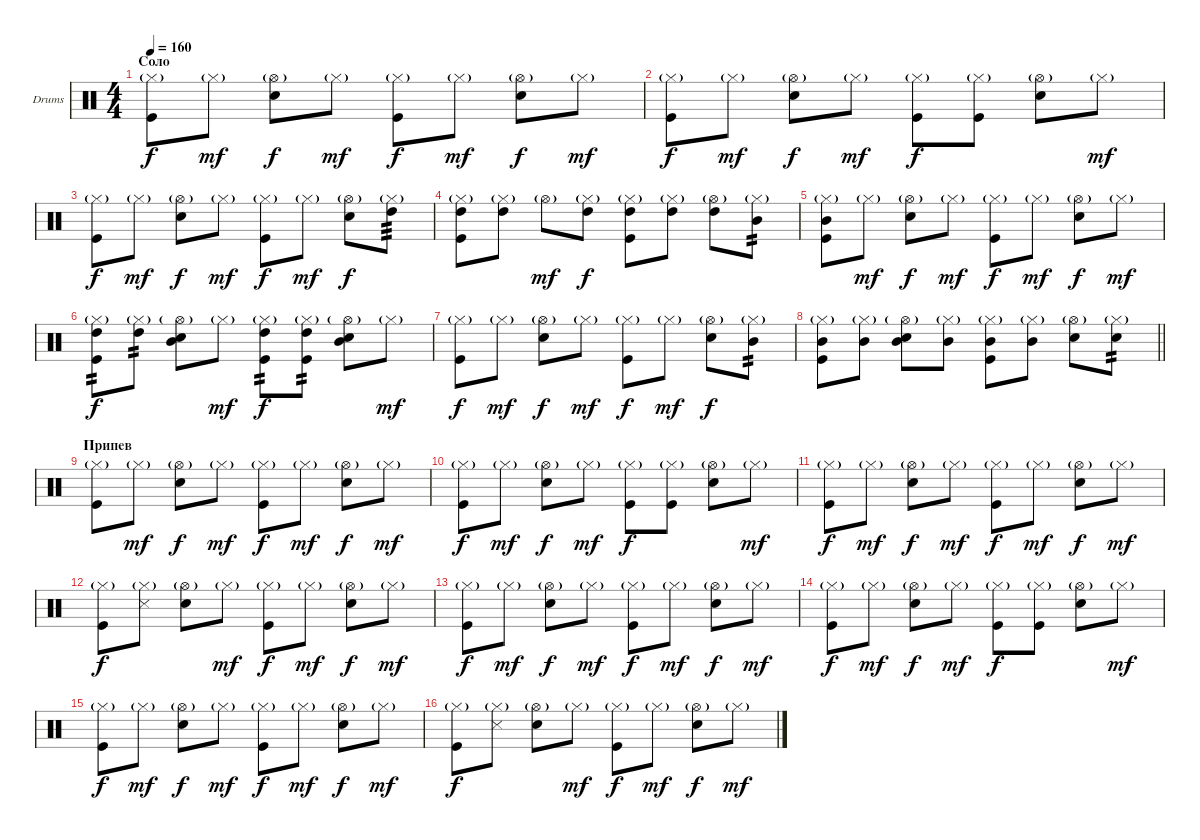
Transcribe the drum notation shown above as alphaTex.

\bracketExtendMode groupsimilarinstruments
\firstSystemTrackNameOrientation horizontal
\otherSystemsTrackNameOrientation horizontal
\track ("Ударные" "Drums") {instrument percussion}
\staff {score}
\articulation defaults
\ts (4 4)
\section ("" "Соло")
\tempo 160
\clef neutral
\ks c
("Hi-Hat (closed)"{g} "Kick (hit)").8{dy f} "Hi-Hat (closed)"{g}.8{dy mf} ("Hi-Hat (open)"{g} "Snare (hit) 2").8{dy f} "Hi-Hat (closed)"{g}.8{dy mf} ("Hi-Hat (closed)"{g} "Kick (hit)").8{dy f} "Hi-Hat (closed)"{g}.8{dy mf} ("Hi-Hat (open)"{g} "Snare (hit) 2").8{dy f} "Hi-Hat (closed)"{g}.8{dy mf} |
("Hi-Hat (closed)"{g} "Kick (hit)").8{dy f} "Hi-Hat (closed)"{g}.8{dy mf} ("Hi-Hat (open)"{g} "Snare (hit) 2").8{dy f} "Hi-Hat (closed)"{g}.8{dy mf} ("Hi-Hat (closed)"{g} "Kick (hit)").8{dy f} ("Hi-Hat (closed)"{g} "Kick (hit)").8 ("Hi-Hat (open)"{g} "Snare (hit) 2").8 "Hi-Hat (closed)"{g}.8{dy mf} |
("Hi-Hat (closed)"{g} "Kick (hit)").8{dy f} "Hi-Hat (closed)"{g}.8{dy mf} ("Hi-Hat (open)"{g} "Snare (hit) 2").8{dy f} "Hi-Hat (closed)"{g}.8{dy mf} ("Hi-Hat (closed)"{g} "Kick (hit)").8{dy f} "Hi-Hat (closed)"{g}.8{dy mf} ("Hi-Hat (open)"{g} "Snare (hit) 2").8{dy f} ("Hi-Hat (closed)"{g} "High Tom (hit)").8{tp 3} |
("Hi-Hat (closed)"{g} "High Tom (hit)" "Kick (hit)").8 ("Hi-Hat (closed)"{g} "High Tom (hit)").8 "Hi-Hat (open)"{g}.8{dy mf} ("Hi-Hat (closed)"{g} "High Tom (hit)").8{dy f} ("Hi-Hat (closed)"{g} "High Tom (hit)" "Kick (hit)").8 ("Hi-Hat (closed)"{g} "High Tom (hit)").8 ("Hi-Hat (open)"{g} "High Tom (hit)").8 ("Hi-Hat (closed)"{g} "Mid Tom (hit)").8{tp 2} |
("Hi-Hat (closed)"{g} "Mid Tom (hit)" "Kick (hit)").8 "Hi-Hat (closed)"{g}.8{dy mf} ("Hi-Hat (open)"{g} "Snare (hit) 2").8{dy f} "Hi-Hat (closed)"{g}.8{dy mf} ("Hi-Hat (closed)"{g} "Kick (hit)").8{dy f} "Hi-Hat (closed)"{g}.8{dy mf} ("Hi-Hat (open)"{g} "Snare (hit) 2").8{dy f} "Hi-Hat (closed)"{g}.8{dy mf} |
("Hi-Hat (closed)"{g} "High Tom (hit)" "Kick (hit)").8{tp 2 dy f} ("Hi-Hat (closed)"{g} "High Tom (hit)").8{tp 2} ("Hi-Hat (open)"{g} "Mid Tom (hit)" "Snare (hit) 2").8 "Hi-Hat (closed)"{g}.8{dy mf} ("Hi-Hat (closed)"{g} "High Tom (hit)" "Kick (hit)").8{tp 2 dy f} ("Hi-Hat (closed)"{g} "High Tom (hit)" "Kick (hit)").8{tp 2} ("Hi-Hat (open)"{g} "Mid Tom (hit)" "Snare (hit) 2").8 "Hi-Hat (closed)"{g}.8{dy mf} |
("Hi-Hat (closed)"{g} "Kick (hit)").8{dy f} "Hi-Hat (closed)"{g}.8{dy mf} ("Hi-Hat (open)"{g} "Snare (hit) 2").8{dy f} "Hi-Hat (closed)"{g}.8{dy mf} ("Hi-Hat (closed)"{g} "Kick (hit)").8{dy f} "Hi-Hat (closed)"{g}.8{dy mf} ("Hi-Hat (open)"{g} "Snare (hit) 2").8{dy f} ("Hi-Hat (closed)"{g} "Mid Tom (hit)").8{tp 2} |
\barLineRight lightlight
("Hi-Hat (closed)"{g} "Mid Tom (hit)" "Kick (hit)").8 ("Hi-Hat (closed)"{g} "Mid Tom (hit)").8 ("Hi-Hat (open)"{g} "Mid Tom (hit)" "Snare (hit) 2").8 ("Hi-Hat (closed)"{g} "Mid Tom (hit)").8 ("Hi-Hat (closed)"{g} "Mid Tom (hit)" "Kick (hit)").8 ("Hi-Hat (closed)"{g} "Mid Tom (hit)").8 ("Hi-Hat (open)"{g} "Snare (hit) 2").8 ("Hi-Hat (closed)"{g} "Snare (hit) 2").8{tp 2} |
\section ("" "Припев")
("Hi-Hat (closed)"{g} "Kick (hit)").8 "Hi-Hat (closed)"{g}.8{dy mf} ("Hi-Hat (open)"{g} "Snare (hit) 2").8{dy f} "Hi-Hat (closed)"{g}.8{dy mf} ("Hi-Hat (closed)"{g} "Kick (hit)").8{dy f} "Hi-Hat (closed)"{g}.8{dy mf} ("Hi-Hat (open)"{g} "Snare (hit) 2").8{dy f} "Hi-Hat (closed)"{g}.8{dy mf} |
("Hi-Hat (closed)"{g} "Kick (hit)").8{dy f} "Hi-Hat (closed)"{g}.8{dy mf} ("Hi-Hat (open)"{g} "Snare (hit) 2").8{dy f} "Hi-Hat (closed)"{g}.8{dy mf} ("Hi-Hat (closed)"{g} "Kick (hit)").8{dy f} ("Hi-Hat (closed)"{g} "Kick (hit)").8 ("Hi-Hat (open)"{g} "Snare (hit) 2").8 "Hi-Hat (closed)"{g}.8{dy mf} |
("Hi-Hat (closed)"{g} "Kick (hit)").8{dy f} "Hi-Hat (closed)"{g}.8{dy mf} ("Hi-Hat (open)"{g} "Snare (hit) 2").8{dy f} "Hi-Hat (closed)"{g}.8{dy mf} ("Hi-Hat (closed)"{g} "Kick (hit)").8{dy f} "Hi-Hat (closed)"{g}.8{dy mf} ("Hi-Hat (open)"{g} "Snare (hit) 2").8{dy f} "Hi-Hat (closed)"{g}.8{dy mf} |
("Hi-Hat (closed)"{g} "Kick (hit)").8{dy f} ("Hi-Hat (closed)"{g} "Snare (side stick) 3").8 ("Hi-Hat (open)"{g} "Snare (hit) 2").8 "Hi-Hat (closed)"{g}.8{dy mf} ("Hi-Hat (closed)"{g} "Kick (hit)").8{dy f} "Hi-Hat (closed)"{g}.8{dy mf} ("Hi-Hat (open)"{g} "Snare (hit) 2").8{dy f} "Hi-Hat (closed)"{g}.8{dy mf} |
("Hi-Hat (closed)"{g} "Kick (hit)").8{dy f} "Hi-Hat (closed)"{g}.8{dy mf} ("Hi-Hat (open)"{g} "Snare (hit) 2").8{dy f} "Hi-Hat (closed)"{g}.8{dy mf} ("Hi-Hat (closed)"{g} "Kick (hit)").8{dy f} "Hi-Hat (closed)"{g}.8{dy mf} ("Hi-Hat (open)"{g} "Snare (hit) 2").8{dy f} "Hi-Hat (closed)"{g}.8{dy mf} |
("Hi-Hat (closed)"{g} "Kick (hit)").8{dy f} "Hi-Hat (closed)"{g}.8{dy mf} ("Hi-Hat (open)"{g} "Snare (hit) 2").8{dy f} "Hi-Hat (closed)"{g}.8{dy mf} ("Hi-Hat (closed)"{g} "Kick (hit)").8{dy f} ("Hi-Hat (closed)"{g} "Kick (hit)").8 ("Hi-Hat (open)"{g} "Snare (hit) 2").8 "Hi-Hat (closed)"{g}.8{dy mf} |
("Hi-Hat (closed)"{g} "Kick (hit)").8{dy f} "Hi-Hat (closed)"{g}.8{dy mf} ("Hi-Hat (open)"{g} "Snare (hit) 2").8{dy f} "Hi-Hat (closed)"{g}.8{dy mf} ("Hi-Hat (closed)"{g} "Kick (hit)").8{dy f} "Hi-Hat (closed)"{g}.8{dy mf} ("Hi-Hat (open)"{g} "Snare (hit) 2").8{dy f} "Hi-Hat (closed)"{g}.8{dy mf} |
("Hi-Hat (closed)"{g} "Kick (hit)").8{dy f} ("Hi-Hat (closed)"{g} "Snare (side stick) 3").8 ("Hi-Hat (open)"{g} "Snare (hit) 2").8 "Hi-Hat (closed)"{g}.8{dy mf} ("Hi-Hat (closed)"{g} "Kick (hit)").8{dy f} "Hi-Hat (closed)"{g}.8{dy mf} ("Hi-Hat (open)"{g} "Snare (hit) 2").8{dy f} "Hi-Hat (closed)"{g}.8{dy mf}
